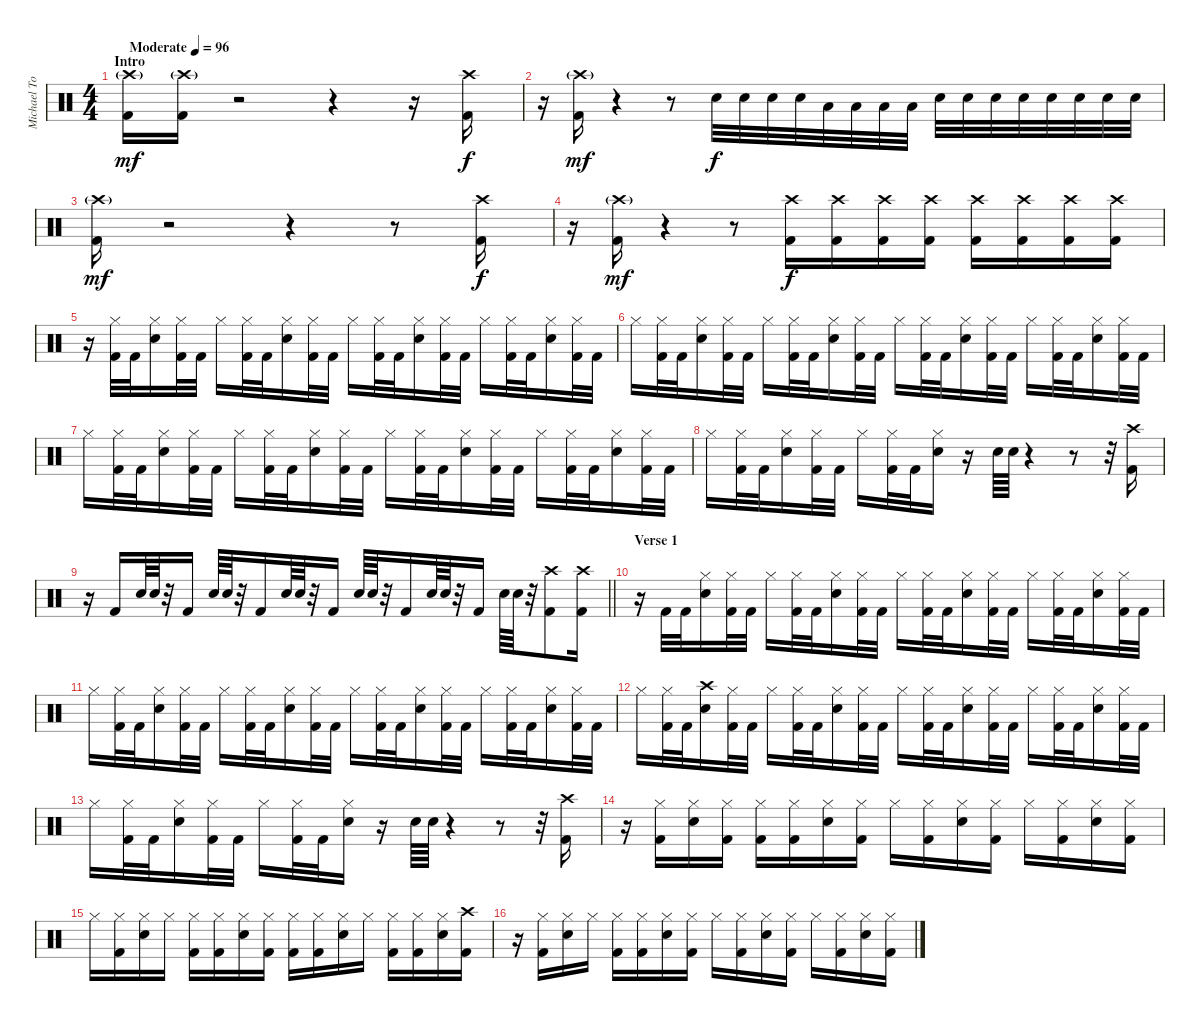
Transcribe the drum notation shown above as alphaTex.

\track ("Michael Tomas (Drums)" "Michael To") {instrument percussion}
\staff {score}
\articulation defaults
\ts (4 4)
\section ("" "Intro")
\tempo (96 "Moderate")
\clef neutral
\ks c
("Crash high (hit)"{g} "Kick (hit) 2").16{dy mf} ("Crash high (hit)"{g} "Kick (hit) 2").16 r.2 r.4 r.16 ("Crash high (hit)" "Kick (hit) 2").16{dy f} |
r.16 ("Crash high (hit)"{g} "Kick (hit) 2").16{dy mf} r.4 r.8 "Snare (hit) 2".32{dy f} "Snare (hit) 2".32 "Snare (hit) 2".32 "Snare (hit) 2".32 "Low Tom (hit)".32 "Low Tom (hit)".32 "Low Tom (hit)".32 "Low Tom (hit)".32 "Snare (hit) 2".32 "Snare (hit) 2".32 "Snare (hit) 2".32 "Snare (hit) 2".32 "Snare (hit) 2".32 "Snare (hit) 2".32 "Snare (hit) 2".32 "Snare (hit) 2".32 |
("Crash high (hit)"{g} "Kick (hit) 2").16{dy mf} r.2 r.4 r.8 ("Crash high (hit)" "Kick (hit) 2").16{dy f} |
r.16 ("Crash high (hit)"{g} "Kick (hit) 2").16{dy mf} r.4 r.8 ("Crash high (hit)" "Kick (hit) 2").16{dy f} ("Crash high (hit)" "Kick (hit) 2").16 ("Crash high (hit)" "Kick (hit) 2").16 ("Crash high (hit)" "Kick (hit) 2").16 ("Crash high (hit)" "Kick (hit) 2").16 ("Crash high (hit)" "Kick (hit) 2").16 ("Crash high (hit)" "Kick (hit) 2").16 ("Crash high (hit)" "Kick (hit) 2").16 |
r.16 ("Hi-Hat (closed)" "Kick (hit) 2").32 "Kick (hit) 2".32 ("Hi-Hat (closed)" "Snare (hit) 2").16 ("Hi-Hat (closed)" "Kick (hit) 2").32 "Kick (hit) 2".32 "Hi-Hat (closed)".16 ("Hi-Hat (closed)" "Kick (hit) 2").32 "Kick (hit) 2".32 ("Hi-Hat (closed)" "Snare (hit) 2").16 ("Hi-Hat (closed)" "Kick (hit) 2").32 "Kick (hit) 2".32 "Hi-Hat (closed)".16 ("Hi-Hat (closed)" "Kick (hit) 2").32 "Kick (hit) 2".32 ("Hi-Hat (closed)" "Snare (hit) 2").16 ("Hi-Hat (closed)" "Kick (hit) 2").32 "Kick (hit) 2".32 "Hi-Hat (closed)".16 ("Hi-Hat (closed)" "Kick (hit) 2").32 "Kick (hit) 2".32 ("Hi-Hat (closed)" "Snare (hit) 2").16 ("Hi-Hat (closed)" "Kick (hit) 2").32 "Kick (hit) 2".32 |
"Hi-Hat (closed)".16 ("Hi-Hat (closed)" "Kick (hit) 2").32 "Kick (hit) 2".32 ("Hi-Hat (closed)" "Snare (hit) 2").16 ("Hi-Hat (closed)" "Kick (hit) 2").32 "Kick (hit) 2".32 "Hi-Hat (closed)".16 ("Hi-Hat (closed)" "Kick (hit) 2").32 "Kick (hit) 2".32 ("Hi-Hat (closed)" "Snare (hit) 2").16 ("Hi-Hat (closed)" "Kick (hit) 2").32 "Kick (hit) 2".32 "Hi-Hat (closed)".16 ("Hi-Hat (closed)" "Kick (hit) 2").32 "Kick (hit) 2".32 ("Hi-Hat (closed)" "Snare (hit) 2").16 ("Hi-Hat (closed)" "Kick (hit) 2").32 "Kick (hit) 2".32 "Hi-Hat (closed)".16 ("Hi-Hat (closed)" "Kick (hit) 2").32 "Kick (hit) 2".32 ("Hi-Hat (closed)" "Snare (hit) 2").16 ("Hi-Hat (closed)" "Kick (hit) 2").32 "Kick (hit) 2".32 |
"Hi-Hat (closed)".16 ("Hi-Hat (closed)" "Kick (hit) 2").32 "Kick (hit) 2".32 ("Hi-Hat (closed)" "Snare (hit) 2").16 ("Hi-Hat (closed)" "Kick (hit) 2").32 "Kick (hit) 2".32 "Hi-Hat (closed)".16 ("Hi-Hat (closed)" "Kick (hit) 2").32 "Kick (hit) 2".32 ("Hi-Hat (closed)" "Snare (hit) 2").16 ("Hi-Hat (closed)" "Kick (hit) 2").32 "Kick (hit) 2".32 "Hi-Hat (closed)".16 ("Hi-Hat (closed)" "Kick (hit) 2").32 "Kick (hit) 2".32 ("Hi-Hat (closed)" "Snare (hit) 2").16 ("Hi-Hat (closed)" "Kick (hit) 2").32 "Kick (hit) 2".32 "Hi-Hat (closed)".16 ("Hi-Hat (closed)" "Kick (hit) 2").32 "Kick (hit) 2".32 ("Hi-Hat (closed)" "Snare (hit) 2").16 ("Hi-Hat (closed)" "Kick (hit) 2").32 "Kick (hit) 2".32 |
"Hi-Hat (closed)".16 ("Hi-Hat (closed)" "Kick (hit) 2").32 "Kick (hit) 2".32 ("Hi-Hat (closed)" "Snare (hit) 2").16 ("Hi-Hat (closed)" "Kick (hit) 2").32 "Kick (hit) 2".32 "Hi-Hat (closed)".16 ("Hi-Hat (closed)" "Kick (hit) 2").32 "Kick (hit) 2".32 ("Hi-Hat (closed)" "Snare (hit) 2").16 r.16 "Snare (hit) 2".64 "Snare (hit) 2".64 r.4 r.8 r.32 ("Crash high (hit)" "Kick (hit) 2").16 |
\barLineRight lightlight
r.16 "Kick (hit) 2".16 "Snare (hit) 2".64 "Snare (hit) 2".64 r.32 "Kick (hit) 2".16 "Snare (hit) 2".64 "Snare (hit) 2".64 r.32 "Kick (hit) 2".16 "Snare (hit) 2".64 "Snare (hit) 2".64 r.32 "Kick (hit) 2".16 "Snare (hit) 2".64 "Snare (hit) 2".64 r.32 "Kick (hit) 2".16 "Snare (hit) 2".64 "Snare (hit) 2".64 r.32 "Kick (hit) 2".16 "Snare (hit) 2".64 "Snare (hit) 2".64 r.32 ("Crash high (hit)" "Kick (hit) 2").8 ("Crash high (hit)" "Kick (hit) 2").16 |
\section ("" "Verse 1")
r.16 "Kick (hit) 2".32 "Kick (hit) 2".32 ("Hi-Hat (closed)" "Snare (hit) 2").16 ("Hi-Hat (closed)" "Kick (hit) 2").32 "Kick (hit) 2".32 "Hi-Hat (closed)".16 ("Hi-Hat (closed)" "Kick (hit) 2").32 "Kick (hit) 2".32 ("Hi-Hat (closed)" "Snare (hit) 2").16 ("Hi-Hat (closed)" "Kick (hit) 2").32 "Kick (hit) 2".32 "Hi-Hat (closed)".16 ("Hi-Hat (closed)" "Kick (hit) 2").32 "Kick (hit) 2".32 ("Hi-Hat (closed)" "Snare (hit) 2").16 ("Hi-Hat (closed)" "Kick (hit) 2").32 "Kick (hit) 2".32 "Hi-Hat (closed)".16 ("Hi-Hat (closed)" "Kick (hit) 2").32 "Kick (hit) 2".32 ("Hi-Hat (closed)" "Snare (hit) 2").16 ("Hi-Hat (closed)" "Kick (hit) 2").32 "Kick (hit) 2".32 |
"Hi-Hat (closed)".16 ("Hi-Hat (closed)" "Kick (hit) 2").32 "Kick (hit) 2".32 ("Hi-Hat (closed)" "Snare (hit) 2").16 ("Hi-Hat (closed)" "Kick (hit) 2").32 "Kick (hit) 2".32 "Hi-Hat (closed)".16 ("Hi-Hat (closed)" "Kick (hit) 2").32 "Kick (hit) 2".32 ("Hi-Hat (closed)" "Snare (hit) 2").16 ("Hi-Hat (closed)" "Kick (hit) 2").32 "Kick (hit) 2".32 "Hi-Hat (closed)".16 ("Hi-Hat (closed)" "Kick (hit) 2").32 "Kick (hit) 2".32 ("Hi-Hat (closed)" "Snare (hit) 2").16 ("Hi-Hat (closed)" "Kick (hit) 2").32 "Kick (hit) 2".32 "Hi-Hat (closed)".16 ("Hi-Hat (closed)" "Kick (hit) 2").32 "Kick (hit) 2".32 ("Hi-Hat (closed)" "Snare (hit) 2").16 ("Hi-Hat (closed)" "Kick (hit) 2").32 "Kick (hit) 2".32 |
"Hi-Hat (closed)".16 ("Hi-Hat (closed)" "Kick (hit) 2").32 "Kick (hit) 2".32 ("Crash high (hit)" "Snare (hit) 2").16 ("Hi-Hat (closed)" "Kick (hit) 2").32 "Kick (hit) 2".32 "Hi-Hat (closed)".16 ("Hi-Hat (closed)" "Kick (hit) 2").32 "Kick (hit) 2".32 ("Hi-Hat (closed)" "Snare (hit) 2").16 ("Hi-Hat (closed)" "Kick (hit) 2").32 "Kick (hit) 2".32 "Hi-Hat (closed)".16 ("Hi-Hat (closed)" "Kick (hit) 2").32 "Kick (hit) 2".32 ("Hi-Hat (closed)" "Snare (hit) 2").16 ("Hi-Hat (closed)" "Kick (hit) 2").32 "Kick (hit) 2".32 "Hi-Hat (closed)".16 ("Hi-Hat (closed)" "Kick (hit) 2").32 "Kick (hit) 2".32 ("Hi-Hat (closed)" "Snare (hit) 2").16 ("Hi-Hat (closed)" "Kick (hit) 2").32 "Kick (hit) 2".32 |
"Hi-Hat (closed)".16 ("Hi-Hat (closed)" "Kick (hit) 2").32 "Kick (hit) 2".32 ("Hi-Hat (closed)" "Snare (hit) 2").16 ("Hi-Hat (closed)" "Kick (hit) 2").32 "Kick (hit) 2".32 "Hi-Hat (closed)".16 ("Hi-Hat (closed)" "Kick (hit) 2").32 "Kick (hit) 2".32 ("Hi-Hat (closed)" "Snare (hit) 2").16 r.16 "Snare (hit) 2".64 "Snare (hit) 2".64 r.4 r.8 r.32 ("Crash high (hit)" "Kick (hit) 2").16 |
r.16 ("Hi-Hat (closed)" "Kick (hit) 2").16 ("Hi-Hat (closed)" "Snare (hit) 2").16 ("Hi-Hat (closed)" "Kick (hit) 2").16 ("Hi-Hat (closed)" "Kick (hit) 2").16 ("Hi-Hat (closed)" "Kick (hit) 2").16 ("Hi-Hat (closed)" "Snare (hit) 2").16 ("Hi-Hat (closed)" "Kick (hit) 2").16 "Hi-Hat (closed)".16 ("Hi-Hat (closed)" "Kick (hit) 2").16 ("Hi-Hat (closed)" "Snare (hit) 2").16 ("Hi-Hat (closed)" "Kick (hit) 2").16 "Hi-Hat (closed)".16 ("Hi-Hat (closed)" "Kick (hit) 2").16 ("Hi-Hat (closed)" "Snare (hit) 2").16 ("Hi-Hat (closed)" "Kick (hit) 2").16 |
"Hi-Hat (closed)".16 ("Hi-Hat (closed)" "Kick (hit) 2").16 ("Hi-Hat (closed)" "Snare (hit) 2").16 "Hi-Hat (closed)".16 ("Hi-Hat (closed)" "Kick (hit) 2").16 ("Hi-Hat (closed)" "Kick (hit) 2").16 ("Hi-Hat (closed)" "Snare (hit) 2").16 ("Hi-Hat (closed)" "Kick (hit) 2").16 ("Hi-Hat (closed)" "Kick (hit) 2").16 ("Hi-Hat (closed)" "Kick (hit) 2").16 ("Hi-Hat (closed)" "Snare (hit) 2").16 "Hi-Hat (closed)".16 ("Hi-Hat (closed)" "Kick (hit) 2").16 ("Hi-Hat (closed)" "Kick (hit) 2").16 ("Hi-Hat (closed)" "Snare (hit) 2").16 ("Crash high (hit)" "Kick (hit) 2").16 |
r.16 ("Hi-Hat (closed)" "Kick (hit) 2").16 ("Hi-Hat (closed)" "Snare (hit) 2").16 "Hi-Hat (closed)".16 ("Hi-Hat (closed)" "Kick (hit) 2").16 ("Hi-Hat (closed)" "Kick (hit) 2").16 ("Hi-Hat (closed)" "Snare (hit) 2").16 ("Hi-Hat (closed)" "Kick (hit) 2").16 "Hi-Hat (closed)".16 ("Hi-Hat (closed)" "Kick (hit) 2").16 ("Hi-Hat (closed)" "Snare (hit) 2").16 ("Hi-Hat (closed)" "Kick (hit) 2").16 "Hi-Hat (closed)".16 ("Hi-Hat (closed)" "Kick (hit) 2").16 ("Hi-Hat (closed)" "Snare (hit) 2").16 ("Hi-Hat (closed)" "Kick (hit) 2").16
